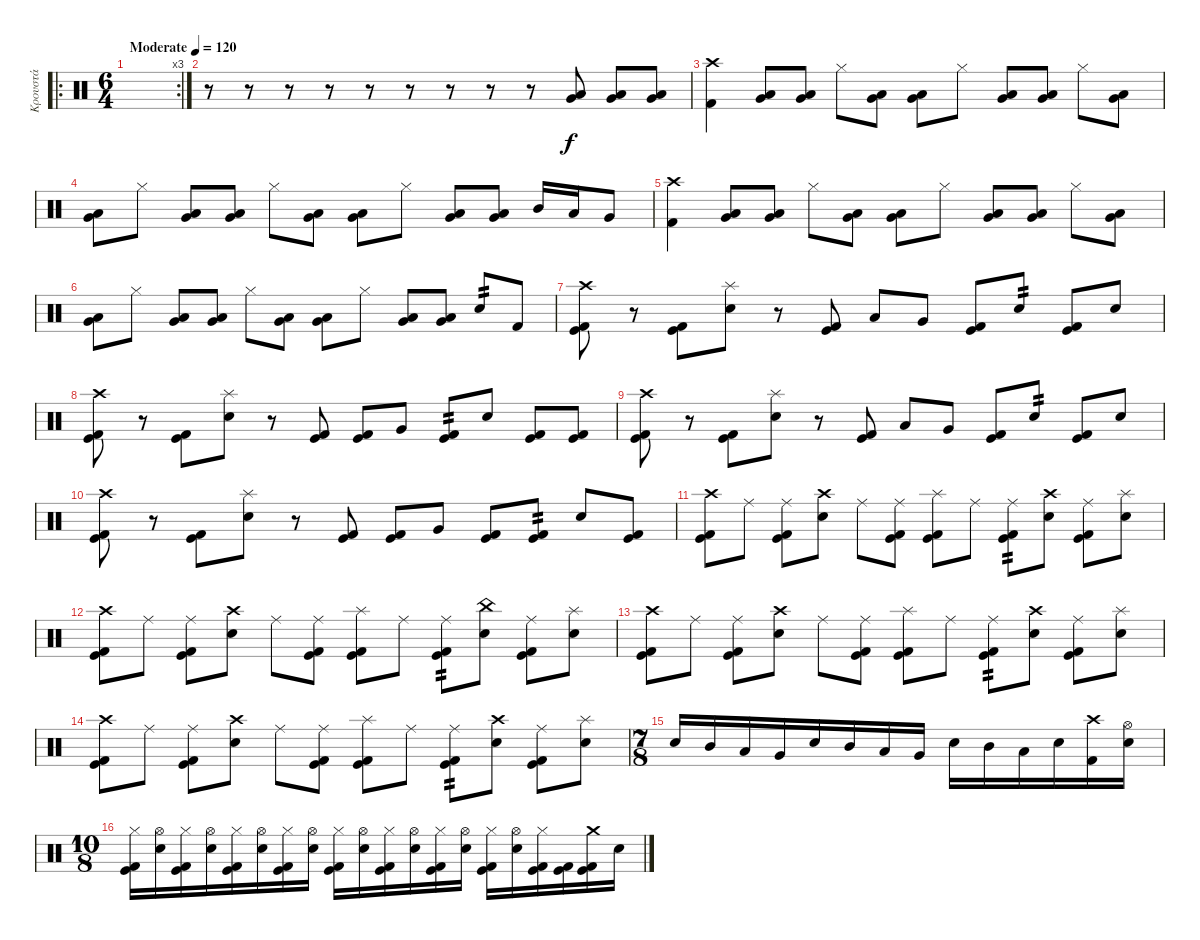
\track ("Κρουστά" "Κρουστά") {instrument percussion}
\staff {score}
\articulation defaults
\ro
\rc 3
\ts (6 4)
\tempo (120 "Moderate")
\clef neutral
\ks c
|
r.8 r.8 r.8 r.8 r.8 r.8 r.8 r.8 r.8 ("Very Low Tom (hit)" "Low Tom (hit)").8 ("Very Low Tom (hit)" "Low Tom (hit)").8 ("Very Low Tom (hit)" "Low Tom (hit)").8 |
("Crash high (hit)" "Kick (hit) 2").4 ("Low Floor Tom (hit)" "Very Low Tom (hit)").8 ("Low Floor Tom (hit)" "Very Low Tom (hit)").8 "Hi-Hat (closed)".8 ("Very Low Tom (hit)" "Low Tom (hit)").8 ("Very Low Tom (hit)" "Low Tom (hit)").8 "Hi-Hat (closed)".8 ("Low Floor Tom (hit)" "Very Low Tom (hit)").8 ("Low Floor Tom (hit)" "Very Low Tom (hit)").8 "Hi-Hat (closed)".8 ("Very Low Tom (hit)" "Low Tom (hit)").8 |
("Very Low Tom (hit)" "Low Tom (hit)").8 "Hi-Hat (closed)".8 ("Low Floor Tom (hit)" "Very Low Tom (hit)").8 ("Low Floor Tom (hit)" "Very Low Tom (hit)").8 "Hi-Hat (closed)".8 ("Very Low Tom (hit)" "Low Tom (hit)").8 ("Very Low Tom (hit)" "Low Tom (hit)").8 "Hi-Hat (closed)".8 ("Low Floor Tom (hit)" "Very Low Tom (hit)").8 ("Low Floor Tom (hit)" "Very Low Tom (hit)").8 "Mid Tom (hit)".16 "Low Tom (hit)".16 "Very Low Tom (hit)".8 |
("Crash high (hit)" "Kick (hit) 2").4 ("Low Floor Tom (hit)" "Very Low Tom (hit)").8 ("Low Floor Tom (hit)" "Very Low Tom (hit)").8 "Hi-Hat (closed)".8 ("Very Low Tom (hit)" "Low Tom (hit)").8 ("Very Low Tom (hit)" "Low Tom (hit)").8 "Hi-Hat (closed)".8 ("Low Floor Tom (hit)" "Very Low Tom (hit)").8 ("Low Floor Tom (hit)" "Very Low Tom (hit)").8 "Hi-Hat (closed)".8 ("Very Low Tom (hit)" "Low Tom (hit)").8 |
("Very Low Tom (hit)" "Low Tom (hit)").8 "Hi-Hat (closed)".8 ("Low Floor Tom (hit)" "Very Low Tom (hit)").8 ("Low Floor Tom (hit)" "Very Low Tom (hit)").8 "Hi-Hat (closed)".8 ("Very Low Tom (hit)" "Low Tom (hit)").8 ("Very Low Tom (hit)" "Low Tom (hit)").8 "Hi-Hat (closed)".8 ("Low Floor Tom (hit)" "Very Low Tom (hit)").8 ("Low Floor Tom (hit)" "Very Low Tom (hit)").8 "Snare (hit) 2".8{tp 2} "Kick (hit) 2".8 |
("Crash high (hit)" "Kick (hit)" "Kick (hit) 2").8 r.8 ("Kick (hit)" "Kick (hit) 2").8 ("Splash (hit)" "Snare (hit) 2").8 r.8 ("Kick (hit)" "Kick (hit) 2").8 "Low Tom (hit)".8 "Very Low Tom (hit)".8 ("Kick (hit)" "Kick (hit) 2").8 "Snare (hit) 2".8{tp 2} ("Kick (hit)" "Kick (hit) 2").8 "Snare (hit) 2".8 |
("Crash high (hit)" "Kick (hit)" "Kick (hit) 2").8 r.8 ("Kick (hit)" "Kick (hit) 2").8 ("Splash (hit)" "Snare (hit) 2").8 r.8 ("Kick (hit)" "Kick (hit) 2").8 ("Kick (hit)" "Kick (hit) 2").8 "Very Low Tom (hit)".8 ("Kick (hit)" "Kick (hit) 2").8{tp 2} "Snare (hit) 2".8 ("Kick (hit)" "Kick (hit) 2").8 ("Kick (hit)" "Kick (hit) 2").8 |
("Crash high (hit)" "Kick (hit)" "Kick (hit) 2").8 r.8 ("Kick (hit)" "Kick (hit) 2").8 ("Splash (hit)" "Snare (hit) 2").8 r.8 ("Kick (hit)" "Kick (hit) 2").8 "Low Tom (hit)".8 "Very Low Tom (hit)".8 ("Kick (hit)" "Kick (hit) 2").8 "Snare (hit) 2".8{tp 2} ("Kick (hit)" "Kick (hit) 2").8 "Snare (hit) 2".8 |
("Crash high (hit)" "Kick (hit)" "Kick (hit) 2").8 r.8 ("Kick (hit)" "Kick (hit) 2").8 ("Splash (hit)" "Snare (hit) 2").8 r.8 ("Kick (hit)" "Kick (hit) 2").8 ("Kick (hit)" "Kick (hit) 2").8 "Very Low Tom (hit)".8 ("Kick (hit)" "Kick (hit) 2").8 ("Kick (hit)" "Kick (hit) 2").8{tp 2} "Snare (hit) 2".8 ("Kick (hit)" "Kick (hit) 2").8 |
("Crash high (hit)" "Kick (hit)" "Kick (hit) 2").8 "Ride (middle)".8 ("Ride (middle)" "Kick (hit)" "Kick (hit) 2").8 ("Crash high (hit)" "Snare (hit) 2").8 "Ride (middle)".8 ("Ride (middle)" "Kick (hit)" "Kick (hit) 2").8 ("Splash (hit)" "Kick (hit)" "Kick (hit) 2").8 "Ride (middle)".8 ("Ride (middle)" "Kick (hit)" "Kick (hit) 2").8{tp 2} ("Crash high (hit)" "Snare (hit) 2").8 ("Ride (middle)" "Kick (hit)" "Kick (hit) 2").8 ("Splash (hit)" "Snare (hit) 2").8 |
("Crash high (hit)" "Kick (hit)" "Kick (hit) 2").8 "Ride (middle)".8 ("Ride (middle)" "Kick (hit)" "Kick (hit) 2").8 ("Crash high (hit)" "Snare (hit) 2").8 "Ride (middle)".8 ("Ride (middle)" "Kick (hit)" "Kick (hit) 2").8 ("Splash (hit)" "Kick (hit)" "Kick (hit) 2").8 "Ride (middle)".8 ("Ride (middle)" "Kick (hit)" "Kick (hit) 2").8{tp 2} ("China (hit)" "Snare (hit) 2").8 ("Ride (middle)" "Kick (hit)" "Kick (hit) 2").8 ("Splash (hit)" "Snare (hit) 2").8 |
("Crash high (hit)" "Kick (hit)" "Kick (hit) 2").8 "Ride (middle)".8 ("Ride (middle)" "Kick (hit)" "Kick (hit) 2").8 ("Crash high (hit)" "Snare (hit) 2").8 "Ride (middle)".8 ("Ride (middle)" "Kick (hit)" "Kick (hit) 2").8 ("Splash (hit)" "Kick (hit)" "Kick (hit) 2").8 "Ride (middle)".8 ("Ride (middle)" "Kick (hit)" "Kick (hit) 2").8{tp 2} ("Crash high (hit)" "Snare (hit) 2").8 ("Ride (middle)" "Kick (hit)" "Kick (hit) 2").8 ("Splash (hit)" "Snare (hit) 2").8 |
("Crash high (hit)" "Kick (hit)" "Kick (hit) 2").8 "Ride (middle)".8 ("Ride (middle)" "Kick (hit)" "Kick (hit) 2").8 ("Crash high (hit)" "Snare (hit) 2").8 "Ride (middle)".8 ("Ride (middle)" "Kick (hit)" "Kick (hit) 2").8 ("Splash (hit)" "Kick (hit)" "Kick (hit) 2").8 "Ride (middle)".8 ("Ride (middle)" "Kick (hit)" "Kick (hit) 2").8{tp 2} ("Crash high (hit)" "Snare (hit) 2").8 ("Ride (middle)" "Kick (hit)" "Kick (hit) 2").8 ("Splash (hit)" "Snare (hit) 2").8 |
\ts (7 8)
"Snare (hit) 2".16 "Mid Tom (hit)".16 "Low Tom (hit)".16 "Very Low Tom (hit)".16 "Snare (hit) 2".16 "Mid Tom (hit)".16 "Low Tom (hit)".16 "Very Low Tom (hit)".16 "Snare (hit) 2".16 "Mid Tom (hit)".16 "Low Tom (hit)".16 "Snare (hit) 2".16 ("Crash high (hit)" "Kick (hit) 2").16 ("Hi-Hat (open)" "Snare (hit) 2").16 |
\ts (10 8)
("Hi-Hat (closed)" "Kick (hit)" "Kick (hit) 2").16 ("Hi-Hat (open)" "Snare (hit) 2").16 ("Hi-Hat (closed)" "Kick (hit)" "Kick (hit) 2").16 ("Hi-Hat (open)" "Snare (hit) 2").16 ("Hi-Hat (closed)" "Kick (hit)" "Kick (hit) 2").16 ("Hi-Hat (open)" "Snare (hit) 2").16 ("Hi-Hat (closed)" "Kick (hit)" "Kick (hit) 2").16 ("Hi-Hat (open)" "Snare (hit) 2").16 ("Hi-Hat (closed)" "Kick (hit)" "Kick (hit) 2").16 ("Hi-Hat (open)" "Snare (hit) 2").16 ("Hi-Hat (closed)" "Kick (hit)" "Kick (hit) 2").16 ("Hi-Hat (open)" "Snare (hit) 2").16 ("Hi-Hat (closed)" "Kick (hit)" "Kick (hit) 2").16 ("Hi-Hat (open)" "Snare (hit) 2").16 ("Hi-Hat (closed)" "Kick (hit)" "Kick (hit) 2").16 ("Hi-Hat (open)" "Snare (hit) 2").16 ("Hi-Hat (closed)" "Kick (hit)" "Kick (hit) 2").16 ("Kick (hit)" "Kick (hit) 2").16 ("Crash medium (hit)" "Kick (hit)" "Kick (hit) 2").16 "Snare (hit) 2".16
